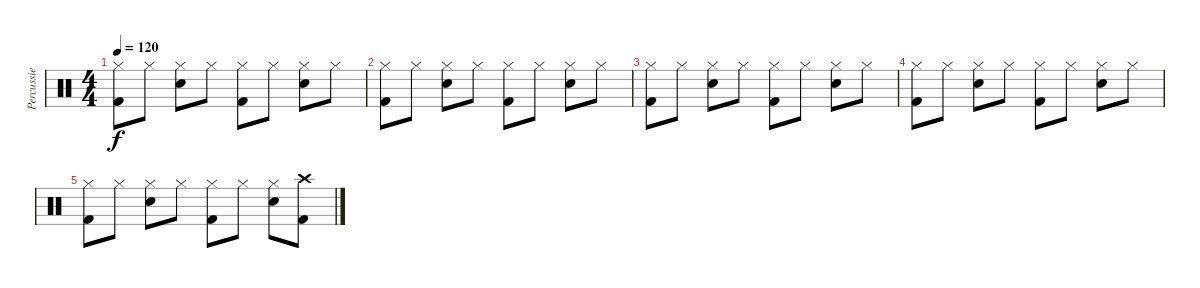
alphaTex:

\track ("Percussie" "Percussie") {instrument percussion}
\staff {score}
\articulation defaults
\ts (4 4)
\tempo 120
\clef neutral
\ks c
("Hi-Hat (closed)" "Kick (hit) 2").8{dy f} "Hi-Hat (closed)".8 ("Hi-Hat (closed)" "Electric Snare (hit)").8 "Hi-Hat (closed)".8 ("Hi-Hat (closed)" "Kick (hit) 2").8 "Hi-Hat (closed)".8 ("Hi-Hat (closed)" "Electric Snare (hit)").8 "Hi-Hat (closed)".8 |
("Hi-Hat (closed)" "Kick (hit) 2").8 "Hi-Hat (closed)".8 ("Hi-Hat (closed)" "Electric Snare (hit)").8 "Hi-Hat (closed)".8 ("Hi-Hat (closed)" "Kick (hit) 2").8 "Hi-Hat (closed)".8 ("Hi-Hat (closed)" "Electric Snare (hit)").8 "Hi-Hat (closed)".8 |
("Hi-Hat (closed)" "Kick (hit) 2").8 "Hi-Hat (closed)".8 ("Hi-Hat (closed)" "Electric Snare (hit)").8 "Hi-Hat (closed)".8 ("Hi-Hat (closed)" "Kick (hit) 2").8 "Hi-Hat (closed)".8 ("Hi-Hat (closed)" "Electric Snare (hit)").8 "Hi-Hat (closed)".8 |
("Hi-Hat (closed)" "Kick (hit) 2").8 "Hi-Hat (closed)".8 ("Hi-Hat (closed)" "Electric Snare (hit)").8 "Hi-Hat (closed)".8 ("Hi-Hat (closed)" "Kick (hit) 2").8 "Hi-Hat (closed)".8 ("Hi-Hat (closed)" "Electric Snare (hit)").8 "Hi-Hat (closed)".8 |
("Hi-Hat (closed)" "Kick (hit) 2").8 "Hi-Hat (closed)".8 ("Hi-Hat (closed)" "Electric Snare (hit)").8 "Hi-Hat (closed)".8 ("Hi-Hat (closed)" "Kick (hit) 2").8 "Hi-Hat (closed)".8 ("Hi-Hat (closed)" "Electric Snare (hit)").8 ("Crash high (hit)" "Kick (hit) 2").8
